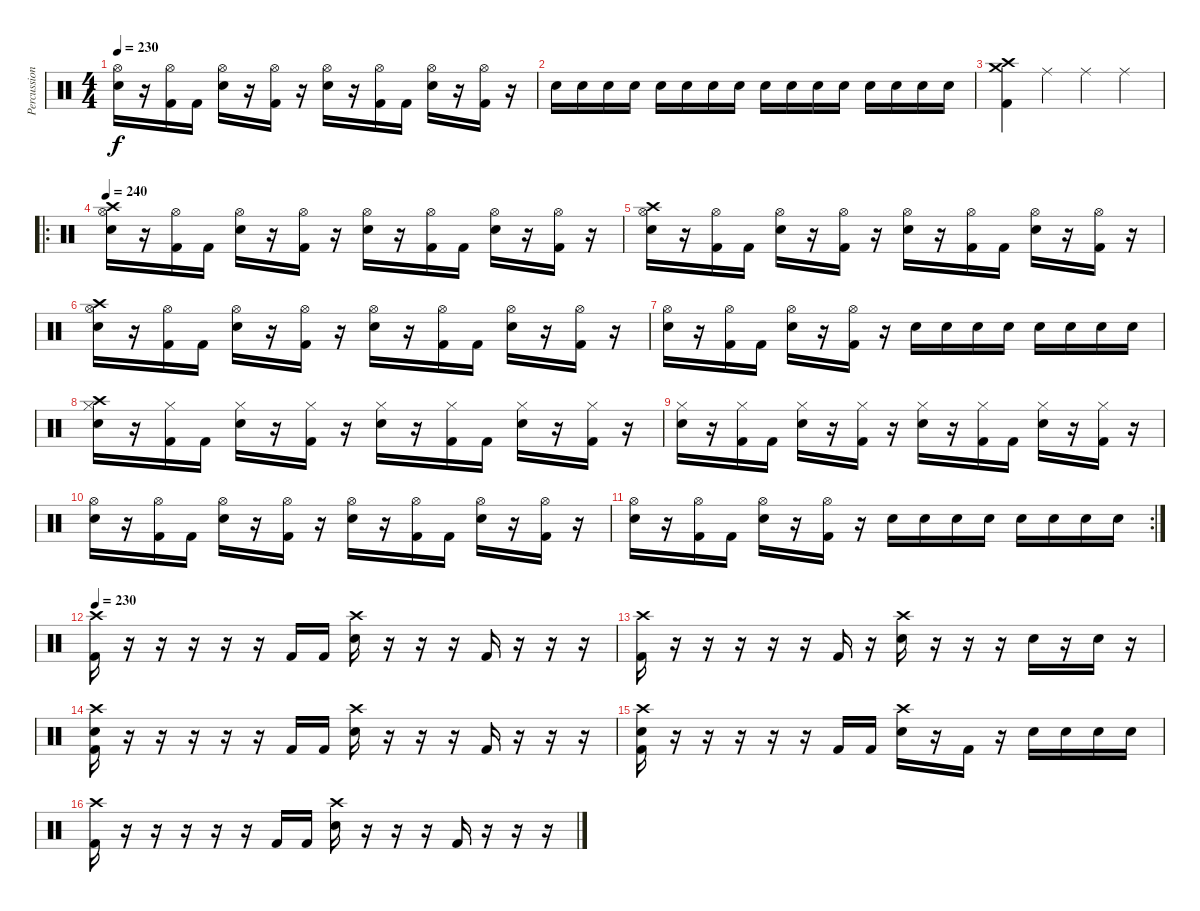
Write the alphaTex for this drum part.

\track ("Percussion" "Percussion") {instrument percussion}
\staff {score}
\articulation defaults
\ts (4 4)
\tempo 230
\clef neutral
\ks c
("Hi-Hat (open)" "Electric Snare (hit)").16{dy f} r.16 ("Hi-Hat (open)" "Kick (hit) 2").16 "Kick (hit) 2".16 ("Hi-Hat (open)" "Electric Snare (hit)").16 r.16 ("Hi-Hat (open)" "Kick (hit) 2").16 r.16 ("Hi-Hat (open)" "Electric Snare (hit)").16 r.16 ("Hi-Hat (open)" "Kick (hit) 2").16 "Kick (hit) 2".16 ("Hi-Hat (open)" "Electric Snare (hit)").16 r.16 ("Hi-Hat (open)" "Kick (hit) 2").16 r.16 |
"Electric Snare (hit)".16 "Electric Snare (hit)".16 "Electric Snare (hit)".16 "Electric Snare (hit)".16 "Electric Snare (hit)".16 "Electric Snare (hit)".16 "Electric Snare (hit)".16 "Electric Snare (hit)".16 "Electric Snare (hit)".16 "Electric Snare (hit)".16 "Electric Snare (hit)".16 "Electric Snare (hit)".16 "Electric Snare (hit)".16 "Electric Snare (hit)".16 "Electric Snare (hit)".16 "Electric Snare (hit)".16 |
("Crash high (hit)" "Crash medium (hit)" "Kick (hit) 2").4 "Ride (middle)".4 "Ride (middle)".4 "Ride (middle)".4 |
\ro
\tempo 240
("Crash high (hit)" "Hi-Hat (open)" "Electric Snare (hit)").16 r.16 ("Hi-Hat (open)" "Kick (hit) 2").16 "Kick (hit) 2".16 ("Hi-Hat (open)" "Electric Snare (hit)").16 r.16 ("Hi-Hat (open)" "Kick (hit) 2").16 r.16 ("Hi-Hat (open)" "Electric Snare (hit)").16 r.16 ("Hi-Hat (open)" "Kick (hit) 2").16 "Kick (hit) 2".16 ("Hi-Hat (open)" "Electric Snare (hit)").16 r.16 ("Hi-Hat (open)" "Kick (hit) 2").16 r.16 |
("Crash high (hit)" "Hi-Hat (open)" "Electric Snare (hit)").16 r.16 ("Hi-Hat (open)" "Kick (hit) 2").16 "Kick (hit) 2".16 ("Hi-Hat (open)" "Electric Snare (hit)").16 r.16 ("Hi-Hat (open)" "Kick (hit) 2").16 r.16 ("Hi-Hat (open)" "Electric Snare (hit)").16 r.16 ("Hi-Hat (open)" "Kick (hit) 2").16 "Kick (hit) 2".16 ("Hi-Hat (open)" "Electric Snare (hit)").16 r.16 ("Hi-Hat (open)" "Kick (hit) 2").16 r.16 |
("Crash high (hit)" "Hi-Hat (open)" "Electric Snare (hit)").16 r.16 ("Hi-Hat (open)" "Kick (hit) 2").16 "Kick (hit) 2".16 ("Hi-Hat (open)" "Electric Snare (hit)").16 r.16 ("Hi-Hat (open)" "Kick (hit) 2").16 r.16 ("Hi-Hat (open)" "Electric Snare (hit)").16 r.16 ("Hi-Hat (open)" "Kick (hit) 2").16 "Kick (hit) 2".16 ("Hi-Hat (open)" "Electric Snare (hit)").16 r.16 ("Hi-Hat (open)" "Kick (hit) 2").16 r.16 |
("Hi-Hat (open)" "Electric Snare (hit)").16 r.16 ("Hi-Hat (open)" "Kick (hit) 2").16 "Kick (hit) 2".16 ("Hi-Hat (open)" "Electric Snare (hit)").16 r.16 ("Hi-Hat (open)" "Kick (hit) 2").16 r.16 "Electric Snare (hit)".16 "Electric Snare (hit)".16 "Electric Snare (hit)".16 "Electric Snare (hit)".16 "Electric Snare (hit)".16 "Electric Snare (hit)".16 "Electric Snare (hit)".16 "Electric Snare (hit)".16 |
("Crash high (hit)" "Hi-Hat (closed)" "Electric Snare (hit)").16 r.16 ("Hi-Hat (closed)" "Kick (hit) 2").16 "Kick (hit) 2".16 ("Hi-Hat (closed)" "Electric Snare (hit)").16 r.16 ("Hi-Hat (closed)" "Kick (hit) 2").16 r.16 ("Hi-Hat (closed)" "Electric Snare (hit)").16 r.16 ("Hi-Hat (closed)" "Kick (hit) 2").16 "Kick (hit) 2".16 ("Hi-Hat (closed)" "Electric Snare (hit)").16 r.16 ("Hi-Hat (closed)" "Kick (hit) 2").16 r.16 |
("Hi-Hat (closed)" "Electric Snare (hit)").16 r.16 ("Hi-Hat (closed)" "Kick (hit) 2").16 "Kick (hit) 2".16 ("Hi-Hat (closed)" "Electric Snare (hit)").16 r.16 ("Hi-Hat (closed)" "Kick (hit) 2").16 r.16 ("Hi-Hat (closed)" "Electric Snare (hit)").16 r.16 ("Hi-Hat (closed)" "Kick (hit) 2").16 "Kick (hit) 2".16 ("Hi-Hat (closed)" "Electric Snare (hit)").16 r.16 ("Hi-Hat (closed)" "Kick (hit) 2").16 r.16 |
("Hi-Hat (open)" "Electric Snare (hit)").16 r.16 ("Hi-Hat (open)" "Kick (hit) 2").16 "Kick (hit) 2".16 ("Hi-Hat (open)" "Electric Snare (hit)").16 r.16 ("Hi-Hat (open)" "Kick (hit) 2").16 r.16 ("Hi-Hat (open)" "Electric Snare (hit)").16 r.16 ("Hi-Hat (open)" "Kick (hit) 2").16 "Kick (hit) 2".16 ("Hi-Hat (open)" "Electric Snare (hit)").16 r.16 ("Hi-Hat (open)" "Kick (hit) 2").16 r.16 |
\rc 2
("Hi-Hat (open)" "Electric Snare (hit)").16 r.16 ("Hi-Hat (open)" "Kick (hit) 2").16 "Kick (hit) 2".16 ("Hi-Hat (open)" "Electric Snare (hit)").16 r.16 ("Hi-Hat (open)" "Kick (hit) 2").16 r.16 "Electric Snare (hit)".16 "Electric Snare (hit)".16 "Electric Snare (hit)".16 "Electric Snare (hit)".16 "Electric Snare (hit)".16 "Electric Snare (hit)".16 "Electric Snare (hit)".16 "Electric Snare (hit)".16 |
\tempo 230
("Crash high (hit)" "Kick (hit) 2").16 r.16 r.16 r.16 r.16 r.16 "Kick (hit) 2".16 "Kick (hit) 2".16 ("Crash high (hit)" "Electric Snare (hit)").16 r.16 r.16 r.16 "Kick (hit) 2".16 r.16 r.16 r.16 |
("Crash high (hit)" "Kick (hit) 2").16 r.16 r.16 r.16 r.16 r.16 "Kick (hit) 2".16 r.16 ("Crash high (hit)" "Electric Snare (hit)").16 r.16 r.16 r.16 "Electric Snare (hit)".16 r.16 "Electric Snare (hit)".16 r.16 |
("Crash high (hit)" "Electric Snare (hit)" "Kick (hit) 2").16 r.16 r.16 r.16 r.16 r.16 "Kick (hit) 2".16 "Kick (hit) 2".16 ("Crash high (hit)" "Electric Snare (hit)").16 r.16 r.16 r.16 "Kick (hit) 2".16 r.16 r.16 r.16 |
("Crash high (hit)" "Electric Snare (hit)" "Kick (hit) 2").16 r.16 r.16 r.16 r.16 r.16 "Kick (hit) 2".16 "Kick (hit) 2".16 ("Crash high (hit)" "Electric Snare (hit)").16 r.16 "Kick (hit) 2".16 r.16 "Electric Snare (hit)".16 "Electric Snare (hit)".16 "Electric Snare (hit)".16 "Electric Snare (hit)".16 |
("Crash high (hit)" "Kick (hit) 2").16 r.16 r.16 r.16 r.16 r.16 "Kick (hit) 2".16 "Kick (hit) 2".16 ("Crash high (hit)" "Electric Snare (hit)").16 r.16 r.16 r.16 "Kick (hit) 2".16 r.16 r.16 r.16
